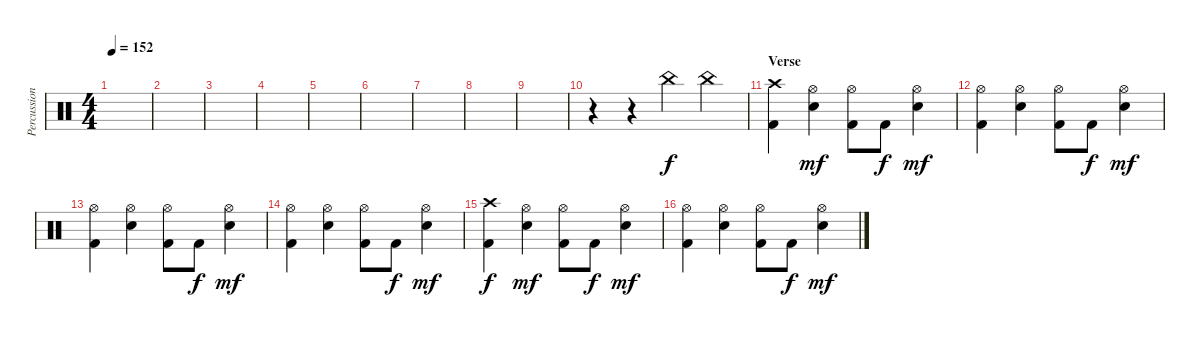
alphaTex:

\track ("Percussion" "Percussion") {instrument percussion}
\staff {score}
\articulation defaults
\ts (4 4)
\tempo 152
\clef neutral
\ks c
|
|
|
|
|
|
|
|
|
r.4 r.4 "China (hit)".4 "China (hit)".4 |
\section ("" "Verse")
("Crash high (hit)" "Kick (hit) 2").4 ("Hi-Hat (open)" "Electric Snare (hit)").4{dy mf} ("Hi-Hat (open)" "Kick (hit) 2").8 "Kick (hit) 2".8{dy f} ("Hi-Hat (open)" "Electric Snare (hit)").4{dy mf} |
("Hi-Hat (open)" "Kick (hit) 2").4 ("Hi-Hat (open)" "Electric Snare (hit)").4 ("Hi-Hat (open)" "Kick (hit) 2").8 "Kick (hit) 2".8{dy f} ("Hi-Hat (open)" "Electric Snare (hit)").4{dy mf} |
("Hi-Hat (open)" "Kick (hit) 2").4 ("Hi-Hat (open)" "Electric Snare (hit)").4 ("Hi-Hat (open)" "Kick (hit) 2").8 "Kick (hit) 2".8{dy f} ("Hi-Hat (open)" "Electric Snare (hit)").4{dy mf} |
("Hi-Hat (open)" "Kick (hit) 2").4 ("Hi-Hat (open)" "Electric Snare (hit)").4 ("Hi-Hat (open)" "Kick (hit) 2").8 "Kick (hit) 2".8{dy f} ("Hi-Hat (open)" "Electric Snare (hit)").4{dy mf} |
("Crash high (hit)" "Kick (hit) 2").4{dy f} ("Hi-Hat (open)" "Electric Snare (hit)").4{dy mf} ("Hi-Hat (open)" "Kick (hit) 2").8 "Kick (hit) 2".8{dy f} ("Hi-Hat (open)" "Electric Snare (hit)").4{dy mf} |
("Hi-Hat (open)" "Kick (hit) 2").4 ("Hi-Hat (open)" "Electric Snare (hit)").4 ("Hi-Hat (open)" "Kick (hit) 2").8 "Kick (hit) 2".8{dy f} ("Hi-Hat (open)" "Electric Snare (hit)").4{dy mf}
